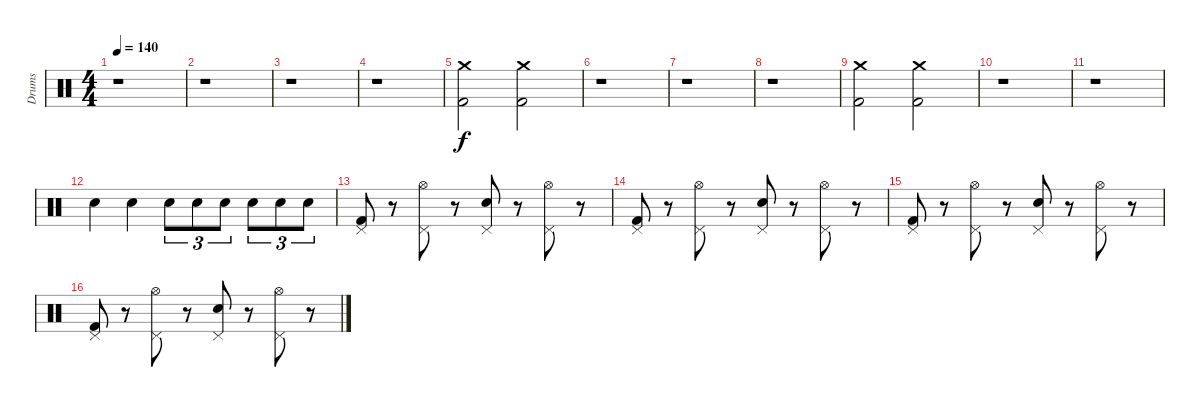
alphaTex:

\track ("Drums" "Drums") {instrument percussion}
\staff {score}
\articulation defaults
\ts (4 4)
\tempo 140
\clef neutral
\ks c
r.1{dy f} |
r.1 |
r.1 |
r.1 |
("Crash medium (hit)" "Kick (hit) 2").2 ("Crash medium (hit)" "Kick (hit) 2").2 |
r.1 |
r.1 |
r.1 |
("Crash medium (hit)" "Kick (hit) 2").2 ("Crash medium (hit)" "Kick (hit) 2").2 |
r.1 |
r.1 |
"Snare (hit) 2".4 "Snare (hit) 2".4 "Snare (hit) 2".8{tu (3 2)} "Snare (hit) 2".8{tu (3 2)} "Snare (hit) 2".8{tu (3 2)} "Snare (hit) 2".8{tu (3 2)} "Snare (hit) 2".8{tu (3 2)} "Snare (hit) 2".8{tu (3 2)} |
("Pedal Hi-Hat (hit)" "Kick (hit) 2").8 r.8 ("Pedal Hi-Hat (hit)" "Hi-Hat (open)").8 r.8 ("Pedal Hi-Hat (hit)" "Snare (hit) 2").8 r.8 ("Pedal Hi-Hat (hit)" "Hi-Hat (open)").8 r.8 |
("Pedal Hi-Hat (hit)" "Kick (hit) 2").8 r.8 ("Pedal Hi-Hat (hit)" "Hi-Hat (open)").8 r.8 ("Pedal Hi-Hat (hit)" "Snare (hit) 2").8 r.8 ("Pedal Hi-Hat (hit)" "Hi-Hat (open)").8 r.8 |
("Pedal Hi-Hat (hit)" "Kick (hit) 2").8 r.8 ("Pedal Hi-Hat (hit)" "Hi-Hat (open)").8 r.8 ("Pedal Hi-Hat (hit)" "Snare (hit) 2").8 r.8 ("Pedal Hi-Hat (hit)" "Hi-Hat (open)").8 r.8 |
("Pedal Hi-Hat (hit)" "Kick (hit) 2").8 r.8 ("Pedal Hi-Hat (hit)" "Hi-Hat (open)").8 r.8 ("Pedal Hi-Hat (hit)" "Snare (hit) 2").8 r.8 ("Pedal Hi-Hat (hit)" "Hi-Hat (open)").8 r.8
